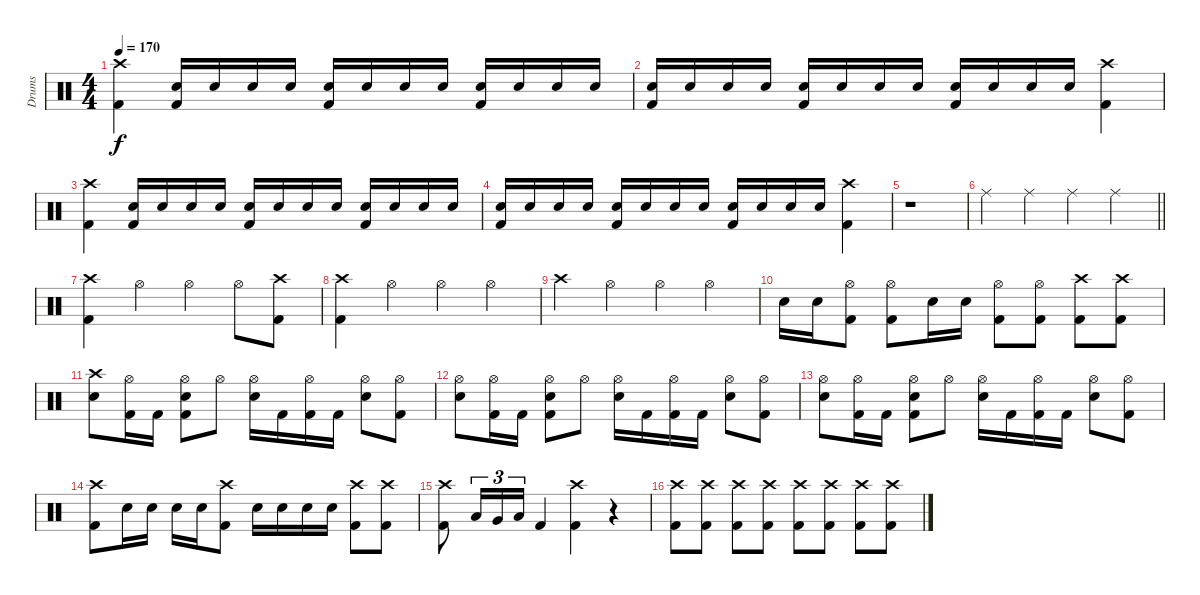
\track ("Drums" "Drums") {instrument percussion}
\staff {score}
\articulation defaults
\ts (4 4)
\tempo 170
\clef neutral
\ks c
("Crash high (hit)" "Kick (hit) 2").4{dy f} ("Snare (hit) 2" "Kick (hit) 2").16 "Snare (hit) 2".16 "Snare (hit) 2".16 "Snare (hit) 2".16 ("Snare (hit) 2" "Kick (hit) 2").16 "Snare (hit) 2".16 "Snare (hit) 2".16 "Snare (hit) 2".16 ("Snare (hit) 2" "Kick (hit) 2").16 "Snare (hit) 2".16 "Snare (hit) 2".16 "Snare (hit) 2".16 |
("Snare (hit) 2" "Kick (hit) 2").16 "Snare (hit) 2".16 "Snare (hit) 2".16 "Snare (hit) 2".16 ("Snare (hit) 2" "Kick (hit) 2").16 "Snare (hit) 2".16 "Snare (hit) 2".16 "Snare (hit) 2".16 ("Snare (hit) 2" "Kick (hit) 2").16 "Snare (hit) 2".16 "Snare (hit) 2".16 "Snare (hit) 2".16 ("Crash high (hit)" "Kick (hit) 2").4 |
("Crash high (hit)" "Kick (hit) 2").4 ("Snare (hit) 2" "Kick (hit) 2").16 "Snare (hit) 2".16 "Snare (hit) 2".16 "Snare (hit) 2".16 ("Snare (hit) 2" "Kick (hit) 2").16 "Snare (hit) 2".16 "Snare (hit) 2".16 "Snare (hit) 2".16 ("Snare (hit) 2" "Kick (hit) 2").16 "Snare (hit) 2".16 "Snare (hit) 2".16 "Snare (hit) 2".16 |
("Snare (hit) 2" "Kick (hit) 2").16 "Snare (hit) 2".16 "Snare (hit) 2".16 "Snare (hit) 2".16 ("Snare (hit) 2" "Kick (hit) 2").16 "Snare (hit) 2".16 "Snare (hit) 2".16 "Snare (hit) 2".16 ("Snare (hit) 2" "Kick (hit) 2").16 "Snare (hit) 2".16 "Snare (hit) 2".16 "Snare (hit) 2".16 ("Crash high (hit)" "Kick (hit) 2").4 |
r.1 |
\barLineRight lightlight "Ride (middle)".4 "Ride (middle)".4 "Ride (middle)".4 "Ride (middle)".4
|
("Crash high (hit)" "Kick (hit) 2").4 "Hi-Hat (open)".4 "Hi-Hat (open)".4 "Hi-Hat (open)".8 ("Crash high (hit)" "Kick (hit) 2").8 |
("Crash high (hit)" "Kick (hit) 2").4 "Hi-Hat (open)".4 "Hi-Hat (open)".4 "Hi-Hat (open)".4 |
"Crash high (hit)".4 "Hi-Hat (open)".4 "Hi-Hat (open)".4 "Hi-Hat (open)".4 |
"Snare (hit) 2".16 "Snare (hit) 2".16 ("Hi-Hat (open)" "Kick (hit) 2").8 ("Hi-Hat (open)" "Kick (hit) 2").8 "Snare (hit) 2".16 "Snare (hit) 2".16 ("Hi-Hat (open)" "Kick (hit) 2").8 ("Hi-Hat (open)" "Kick (hit) 2").8 ("Crash high (hit)" "Kick (hit) 2").8 ("Crash high (hit)" "Kick (hit) 2").8 |
("Crash high (hit)" "Snare (hit) 2").8 ("Hi-Hat (open)" "Kick (hit) 2").16 "Kick (hit) 2".16 ("Hi-Hat (open)" "Snare (hit) 2" "Kick (hit) 2").8 "Hi-Hat (open)".8 ("Hi-Hat (open)" "Snare (hit) 2").16 "Kick (hit) 2".16 ("Hi-Hat (open)" "Kick (hit) 2").16 "Kick (hit) 2".16 ("Hi-Hat (open)" "Snare (hit) 2").8 ("Hi-Hat (open)" "Kick (hit) 2").8 |
("Hi-Hat (open)" "Snare (hit) 2").8 ("Hi-Hat (open)" "Kick (hit) 2").16 "Kick (hit) 2".16 ("Hi-Hat (open)" "Snare (hit) 2" "Kick (hit) 2").8 "Hi-Hat (open)".8 ("Hi-Hat (open)" "Snare (hit) 2").16 "Kick (hit) 2".16 ("Hi-Hat (open)" "Kick (hit) 2").16 "Kick (hit) 2".16 ("Hi-Hat (open)" "Snare (hit) 2").8 ("Hi-Hat (open)" "Kick (hit) 2").8 |
("Hi-Hat (open)" "Snare (hit) 2").8 ("Hi-Hat (open)" "Kick (hit) 2").16 "Kick (hit) 2".16 ("Hi-Hat (open)" "Snare (hit) 2" "Kick (hit) 2").8 "Hi-Hat (open)".8 ("Hi-Hat (open)" "Snare (hit) 2").16 "Kick (hit) 2".16 ("Hi-Hat (open)" "Kick (hit) 2").16 "Kick (hit) 2".16 ("Hi-Hat (open)" "Snare (hit) 2").8 ("Hi-Hat (open)" "Kick (hit) 2").8 |
("Crash high (hit)" "Kick (hit) 2").8 "Snare (hit) 2".16 "Snare (hit) 2".16 "Snare (hit) 2".16 "Snare (hit) 2".16 ("Crash high (hit)" "Kick (hit) 2").8 "Snare (hit) 2".16 "Snare (hit) 2".16 "Snare (hit) 2".16 "Snare (hit) 2".16 ("Crash high (hit)" "Kick (hit) 2").8 ("Crash high (hit)" "Kick (hit) 2").8 |
("Crash high (hit)" "Kick (hit) 2").8 "Low Tom (hit)".16{tu (3 2)} "Very Low Tom (hit)".16{tu (3 2)} "Low Floor Tom (hit)".16{tu (3 2)} "Kick (hit) 2".4 ("Crash high (hit)" "Kick (hit) 2").4 r.4 |
("Crash high (hit)" "Kick (hit) 2").8 ("Crash high (hit)" "Kick (hit) 2").8 ("Crash high (hit)" "Kick (hit) 2").8 ("Crash high (hit)" "Kick (hit) 2").8 ("Crash high (hit)" "Kick (hit) 2").8 ("Crash high (hit)" "Kick (hit) 2").8 ("Crash high (hit)" "Kick (hit) 2").8 ("Crash high (hit)" "Kick (hit) 2").8
